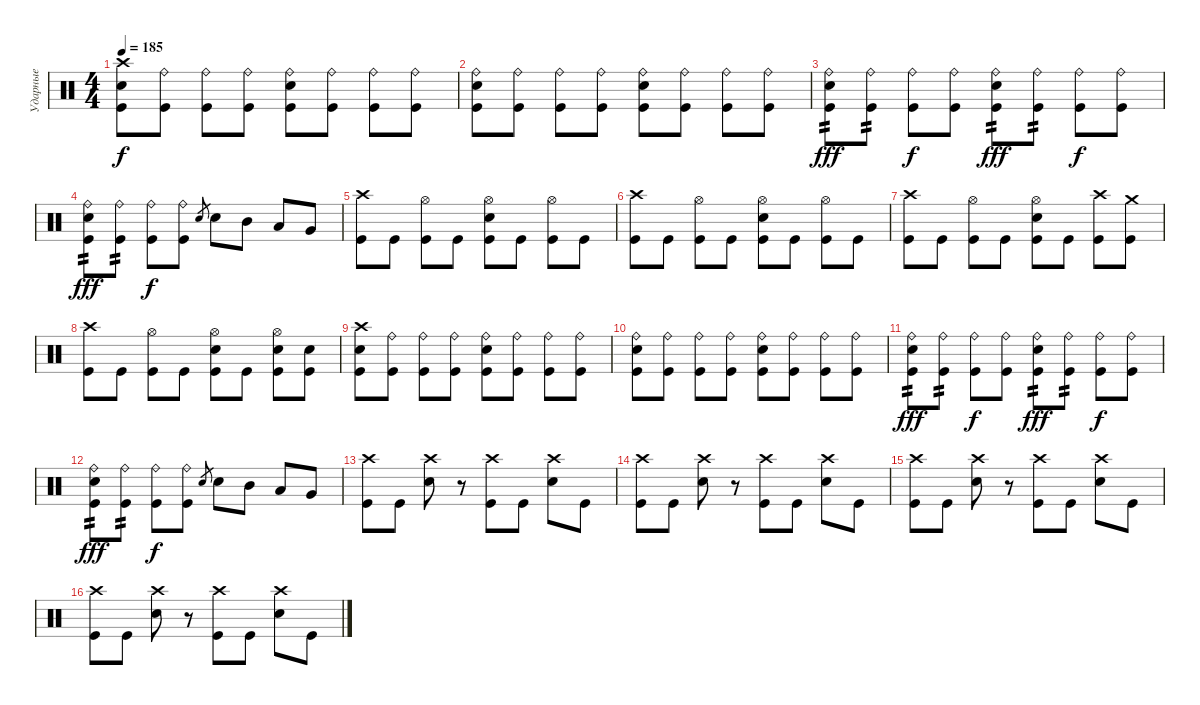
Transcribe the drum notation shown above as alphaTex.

\track ("Ударные" "Ударные") {instrument percussion}
\staff {score}
\articulation defaults
\ts (4 4)
\tempo 185
\clef neutral
\ks c
("Kick (hit)" "Crash high (hit)" "Snare (hit) 2").8{dy f} ("Kick (hit)" "Ride (bell)").8 ("Kick (hit)" "Ride (bell)").8 ("Kick (hit)" "Ride (bell)").8 ("Kick (hit)" "Ride (bell)" "Snare (hit) 2").8 ("Kick (hit)" "Ride (bell)").8 ("Kick (hit)" "Ride (bell)").8 ("Kick (hit)" "Ride (bell)").8 |
("Kick (hit)" "Ride (bell)" "Snare (hit) 2").8 ("Kick (hit)" "Ride (bell)").8 ("Kick (hit)" "Ride (bell)").8 ("Kick (hit)" "Ride (bell)").8 ("Kick (hit)" "Ride (bell)" "Snare (hit) 2").8 ("Kick (hit)" "Ride (bell)").8 ("Kick (hit)" "Ride (bell)").8 ("Kick (hit)" "Ride (bell)").8 |
("Kick (hit)" "Ride (bell)" "Snare (hit) 2").8{tp 2 dy fff} ("Kick (hit)" "Ride (bell)").8{tp 2} ("Kick (hit)" "Ride (bell)").8{dy f} ("Kick (hit)" "Ride (bell)").8 ("Kick (hit)" "Ride (bell)" "Snare (hit) 2").8{tp 2 dy fff} ("Kick (hit)" "Ride (bell)").8{tp 2} ("Kick (hit)" "Ride (bell)").8{dy f} ("Kick (hit)" "Ride (bell)").8 |
("Kick (hit)" "Ride (bell)" "Snare (hit) 2").8{tp 2 dy fff} ("Kick (hit)" "Ride (bell)").8{tp 2} ("Kick (hit)" "Ride (bell)").8{dy f} ("Kick (hit)" "Ride (bell)").8 "Snare (hit) 2".8{gr} "Snare (hit) 2".8 "Mid Tom (hit)".8 "Low Tom (hit)".8 "Very Low Tom (hit)".8 |
("Crash high (hit)" "Kick (hit)").8 "Kick (hit)".8 ("Hi-Hat (open)" "Kick (hit)").8 "Kick (hit)".8 ("Hi-Hat (open)" "Kick (hit)" "Snare (hit) 2").8 "Kick (hit)".8 ("Hi-Hat (open)" "Kick (hit)").8 "Kick (hit)".8 |
("Crash high (hit)" "Kick (hit)").8 "Kick (hit)".8 ("Hi-Hat (open)" "Kick (hit)").8 "Kick (hit)".8 ("Hi-Hat (open)" "Kick (hit)" "Snare (hit) 2").8 "Kick (hit)".8 ("Hi-Hat (open)" "Kick (hit)").8 "Kick (hit)".8 |
("Crash high (hit)" "Kick (hit)").8 "Kick (hit)".8 ("Hi-Hat (open)" "Kick (hit)").8 "Kick (hit)".8 ("Hi-Hat (open)" "Kick (hit)" "Snare (hit) 2").8 "Kick (hit)".8 ("Crash high (hit)" "Kick (hit)").8 ("Crash medium (hit)" "Kick (hit)").8 |
("Crash high (hit)" "Kick (hit)").8 "Kick (hit)".8 ("Hi-Hat (open)" "Kick (hit)").8 "Kick (hit)".8 ("Hi-Hat (open)" "Kick (hit)" "Snare (hit) 2").8 "Kick (hit)".8 ("Hi-Hat (open)" "Kick (hit)" "Snare (hit) 2").8 ("Kick (hit)" "Snare (hit) 2").8 |
("Kick (hit)" "Crash high (hit)" "Snare (hit) 2").8 ("Kick (hit)" "Ride (bell)").8 ("Kick (hit)" "Ride (bell)").8 ("Kick (hit)" "Ride (bell)").8 ("Kick (hit)" "Ride (bell)" "Snare (hit) 2").8 ("Kick (hit)" "Ride (bell)").8 ("Kick (hit)" "Ride (bell)").8 ("Kick (hit)" "Ride (bell)").8 |
("Kick (hit)" "Ride (bell)" "Snare (hit) 2").8 ("Kick (hit)" "Ride (bell)").8 ("Kick (hit)" "Ride (bell)").8 ("Kick (hit)" "Ride (bell)").8 ("Kick (hit)" "Ride (bell)" "Snare (hit) 2").8 ("Kick (hit)" "Ride (bell)").8 ("Kick (hit)" "Ride (bell)").8 ("Kick (hit)" "Ride (bell)").8 |
("Kick (hit)" "Ride (bell)" "Snare (hit) 2").8{tp 2 dy fff} ("Kick (hit)" "Ride (bell)").8{tp 2} ("Kick (hit)" "Ride (bell)").8{dy f} ("Kick (hit)" "Ride (bell)").8 ("Kick (hit)" "Ride (bell)" "Snare (hit) 2").8{tp 2 dy fff} ("Kick (hit)" "Ride (bell)").8{tp 2} ("Kick (hit)" "Ride (bell)").8{dy f} ("Kick (hit)" "Ride (bell)").8 |
("Kick (hit)" "Ride (bell)" "Snare (hit) 2").8{tp 2 dy fff} ("Kick (hit)" "Ride (bell)").8{tp 2} ("Kick (hit)" "Ride (bell)").8{dy f} ("Kick (hit)" "Ride (bell)").8 "Snare (hit) 2".8{gr} "Snare (hit) 2".8 "Mid Tom (hit)".8 "Low Tom (hit)".8 "Very Low Tom (hit)".8 |
("Crash high (hit)" "Kick (hit)").8 "Kick (hit)".8 ("Crash high (hit)" "Snare (hit) 2").8 r.8 ("Crash high (hit)" "Kick (hit)").8 "Kick (hit)".8 ("Crash high (hit)" "Snare (hit) 2").8 "Kick (hit)".8 |
("Crash high (hit)" "Kick (hit)").8 "Kick (hit)".8 ("Crash high (hit)" "Snare (hit) 2").8 r.8 ("Crash high (hit)" "Kick (hit)").8 "Kick (hit)".8 ("Crash high (hit)" "Snare (hit) 2").8 "Kick (hit)".8 |
("Crash high (hit)" "Kick (hit)").8 "Kick (hit)".8 ("Crash high (hit)" "Snare (hit) 2").8 r.8 ("Crash high (hit)" "Kick (hit)").8 "Kick (hit)".8 ("Crash high (hit)" "Snare (hit) 2").8 "Kick (hit)".8 |
("Crash high (hit)" "Kick (hit)").8 "Kick (hit)".8 ("Crash high (hit)" "Snare (hit) 2").8 r.8 ("Crash high (hit)" "Kick (hit)").8 "Kick (hit)".8 ("Crash high (hit)" "Snare (hit) 2").8 "Kick (hit)".8
